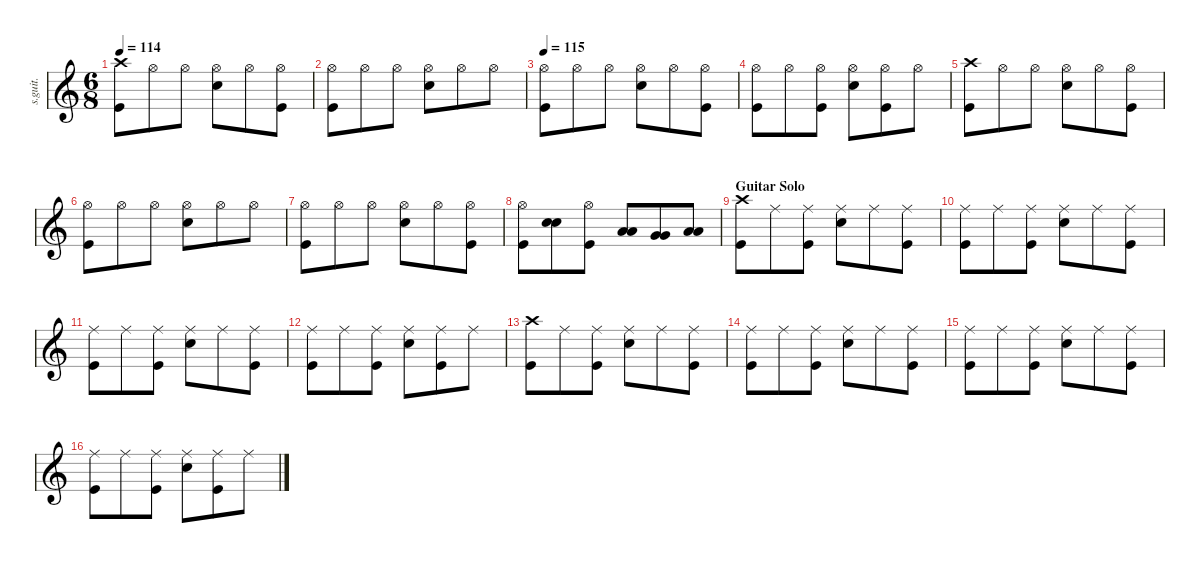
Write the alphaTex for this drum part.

\defaultSystemsLayout 4
\hideDynamics
\bracketExtendMode nobrackets
\track ("John Dolmayan - Drums" "s.guit.") {instrument percussion}
\staff {score}
\articulation defaults
\ts (6 8)
\tempo 114
\clef g2
\ks c
("Crash high (hit)" "Kick (hit)").8{lyrics (0 "") lyrics (1 "") lyrics (2 "") lyrics (3 "") lyrics (4 "") dy f} "Hi-Hat (open)".8{lyrics (0 "") lyrics (1 "") lyrics (2 "") lyrics (3 "") lyrics (4 "")} "Hi-Hat (open)".8{lyrics (0 "") lyrics (1 "") lyrics (2 "") lyrics (3 "") lyrics (4 "")} ("Hi-Hat (open)" "Snare (hit) 2").8{lyrics (0 "") lyrics (1 "") lyrics (2 "") lyrics (3 "") lyrics (4 "")} "Hi-Hat (open)".8{lyrics (0 "") lyrics (1 "") lyrics (2 "") lyrics (3 "") lyrics (4 "")} ("Hi-Hat (open)" "Kick (hit)").8{lyrics (0 "") lyrics (1 "") lyrics (2 "") lyrics (3 "") lyrics (4 "")} |
("Hi-Hat (open)" "Kick (hit)").8{lyrics (0 "") lyrics (1 "") lyrics (2 "") lyrics (3 "") lyrics (4 "")} "Hi-Hat (open)".8{lyrics (0 "") lyrics (1 "") lyrics (2 "") lyrics (3 "") lyrics (4 "")} "Hi-Hat (open)".8{lyrics (0 "") lyrics (1 "") lyrics (2 "") lyrics (3 "") lyrics (4 "")} ("Hi-Hat (open)" "Snare (hit) 2").8{lyrics (0 "") lyrics (1 "") lyrics (2 "") lyrics (3 "") lyrics (4 "")} "Hi-Hat (open)".8{lyrics (0 "") lyrics (1 "") lyrics (2 "") lyrics (3 "") lyrics (4 "")} "Hi-Hat (open)".8{lyrics (0 "") lyrics (1 "") lyrics (2 "") lyrics (3 "") lyrics (4 "")} |
\tempo 115
("Hi-Hat (open)" "Kick (hit)").8{lyrics (0 "") lyrics (1 "") lyrics (2 "") lyrics (3 "") lyrics (4 "")} "Hi-Hat (open)".8{lyrics (0 "") lyrics (1 "") lyrics (2 "") lyrics (3 "") lyrics (4 "")} "Hi-Hat (open)".8{lyrics (0 "") lyrics (1 "") lyrics (2 "") lyrics (3 "") lyrics (4 "")} ("Hi-Hat (open)" "Snare (hit) 2").8{lyrics (0 "") lyrics (1 "") lyrics (2 "") lyrics (3 "") lyrics (4 "")} "Hi-Hat (open)".8{lyrics (0 "") lyrics (1 "") lyrics (2 "") lyrics (3 "") lyrics (4 "")} ("Hi-Hat (open)" "Kick (hit)").8{lyrics (0 "") lyrics (1 "") lyrics (2 "") lyrics (3 "") lyrics (4 "")} |
("Hi-Hat (open)" "Kick (hit)").8{lyrics (0 "") lyrics (1 "") lyrics (2 "") lyrics (3 "") lyrics (4 "")} "Hi-Hat (open)".8{lyrics (0 "") lyrics (1 "") lyrics (2 "") lyrics (3 "") lyrics (4 "")} ("Hi-Hat (open)" "Kick (hit)").8{lyrics (0 "") lyrics (1 "") lyrics (2 "") lyrics (3 "") lyrics (4 "")} ("Hi-Hat (open)" "Snare (hit) 2").8{lyrics (0 "") lyrics (1 "") lyrics (2 "") lyrics (3 "") lyrics (4 "")} ("Hi-Hat (open)" "Kick (hit)").8{lyrics (0 "") lyrics (1 "") lyrics (2 "") lyrics (3 "") lyrics (4 "")} "Hi-Hat (open)".8{lyrics (0 "") lyrics (1 "") lyrics (2 "") lyrics (3 "") lyrics (4 "")} |
("Crash high (hit)" "Kick (hit)").8{lyrics (0 "") lyrics (1 "") lyrics (2 "") lyrics (3 "") lyrics (4 "")} "Hi-Hat (open)".8{lyrics (0 "") lyrics (1 "") lyrics (2 "") lyrics (3 "") lyrics (4 "")} "Hi-Hat (open)".8{lyrics (0 "") lyrics (1 "") lyrics (2 "") lyrics (3 "") lyrics (4 "")} ("Hi-Hat (open)" "Snare (hit) 2").8{lyrics (0 "") lyrics (1 "") lyrics (2 "") lyrics (3 "") lyrics (4 "")} "Hi-Hat (open)".8{lyrics (0 "") lyrics (1 "") lyrics (2 "") lyrics (3 "") lyrics (4 "")} ("Hi-Hat (open)" "Kick (hit)").8{lyrics (0 "") lyrics (1 "") lyrics (2 "") lyrics (3 "") lyrics (4 "")} |
("Hi-Hat (open)" "Kick (hit)").8{lyrics (0 "") lyrics (1 "") lyrics (2 "") lyrics (3 "") lyrics (4 "")} "Hi-Hat (open)".8{lyrics (0 "") lyrics (1 "") lyrics (2 "") lyrics (3 "") lyrics (4 "")} "Hi-Hat (open)".8{lyrics (0 "") lyrics (1 "") lyrics (2 "") lyrics (3 "") lyrics (4 "")} ("Hi-Hat (open)" "Snare (hit) 2").8{lyrics (0 "") lyrics (1 "") lyrics (2 "") lyrics (3 "") lyrics (4 "")} "Hi-Hat (open)".8{lyrics (0 "") lyrics (1 "") lyrics (2 "") lyrics (3 "") lyrics (4 "")} "Hi-Hat (open)".8{lyrics (0 "") lyrics (1 "") lyrics (2 "") lyrics (3 "") lyrics (4 "")} |
("Hi-Hat (open)" "Kick (hit)").8{lyrics (0 "") lyrics (1 "") lyrics (2 "") lyrics (3 "") lyrics (4 "")} "Hi-Hat (open)".8{lyrics (0 "") lyrics (1 "") lyrics (2 "") lyrics (3 "") lyrics (4 "")} "Hi-Hat (open)".8{lyrics (0 "") lyrics (1 "") lyrics (2 "") lyrics (3 "") lyrics (4 "")} ("Hi-Hat (open)" "Snare (hit) 2").8{lyrics (0 "") lyrics (1 "") lyrics (2 "") lyrics (3 "") lyrics (4 "")} "Hi-Hat (open)".8{lyrics (0 "") lyrics (1 "") lyrics (2 "") lyrics (3 "") lyrics (4 "")} ("Hi-Hat (open)" "Kick (hit)").8{lyrics (0 "") lyrics (1 "") lyrics (2 "") lyrics (3 "") lyrics (4 "")} |
("Hi-Hat (open)" "Kick (hit)").8{lyrics (0 "") lyrics (1 "") lyrics (2 "") lyrics (3 "") lyrics (4 "")} ("Snare (hit) 2" "Snare (hit) 2").8{lyrics (0 "") lyrics (1 "") lyrics (2 "") lyrics (3 "") lyrics (4 "")} ("Hi-Hat (open)" "Kick (hit)").8{lyrics (0 "") lyrics (1 "") lyrics (2 "") lyrics (3 "") lyrics (4 "")} ("Low Tom (hit)" "Low Tom (hit)").8{lyrics (0 "") lyrics (1 "") lyrics (2 "") lyrics (3 "") lyrics (4 "")} ("Very Low Tom (hit)" "Very Low Tom (hit)").8{lyrics (0 "") lyrics (1 "") lyrics (2 "") lyrics (3 "") lyrics (4 "")} ("Low Floor Tom (hit)" "Low Floor Tom (hit)").8{lyrics (0 "") lyrics (1 "") lyrics (2 "") lyrics (3 "") lyrics (4 "")} |
\section ("" "Guitar Solo")
\tempo (115 hide)
("Crash high (hit)" "Kick (hit)").8{lyrics (0 "") lyrics (1 "") lyrics (2 "") lyrics (3 "") lyrics (4 "")} "Ride (middle)".8{lyrics (0 "") lyrics (1 "") lyrics (2 "") lyrics (3 "") lyrics (4 "")} ("Ride (middle)" "Kick (hit)").8{lyrics (0 "") lyrics (1 "") lyrics (2 "") lyrics (3 "") lyrics (4 "")} ("Ride (middle)" "Snare (hit) 2").8{lyrics (0 "") lyrics (1 "") lyrics (2 "") lyrics (3 "") lyrics (4 "")} "Ride (middle)".8{lyrics (0 "") lyrics (1 "") lyrics (2 "") lyrics (3 "") lyrics (4 "")} ("Ride (middle)" "Kick (hit)").8{lyrics (0 "") lyrics (1 "") lyrics (2 "") lyrics (3 "") lyrics (4 "")} |
("Ride (middle)" "Kick (hit)").8{lyrics (0 "") lyrics (1 "") lyrics (2 "") lyrics (3 "") lyrics (4 "")} "Ride (middle)".8{lyrics (0 "") lyrics (1 "") lyrics (2 "") lyrics (3 "") lyrics (4 "")} ("Ride (middle)" "Kick (hit)").8{lyrics (0 "") lyrics (1 "") lyrics (2 "") lyrics (3 "") lyrics (4 "")} ("Ride (middle)" "Snare (hit) 2").8{lyrics (0 "") lyrics (1 "") lyrics (2 "") lyrics (3 "") lyrics (4 "")} "Ride (middle)".8{lyrics (0 "") lyrics (1 "") lyrics (2 "") lyrics (3 "") lyrics (4 "")} ("Ride (middle)" "Kick (hit)").8{lyrics (0 "") lyrics (1 "") lyrics (2 "") lyrics (3 "") lyrics (4 "")} |
("Ride (middle)" "Kick (hit)").8{lyrics (0 "") lyrics (1 "") lyrics (2 "") lyrics (3 "") lyrics (4 "")} "Ride (middle)".8{lyrics (0 "") lyrics (1 "") lyrics (2 "") lyrics (3 "") lyrics (4 "")} ("Ride (middle)" "Kick (hit)").8{lyrics (0 "") lyrics (1 "") lyrics (2 "") lyrics (3 "") lyrics (4 "")} ("Ride (middle)" "Snare (hit) 2").8{lyrics (0 "") lyrics (1 "") lyrics (2 "") lyrics (3 "") lyrics (4 "")} "Ride (middle)".8{lyrics (0 "") lyrics (1 "") lyrics (2 "") lyrics (3 "") lyrics (4 "")} ("Ride (middle)" "Kick (hit)").8{lyrics (0 "") lyrics (1 "") lyrics (2 "") lyrics (3 "") lyrics (4 "")} |
("Ride (middle)" "Kick (hit)").8{lyrics (0 "") lyrics (1 "") lyrics (2 "") lyrics (3 "") lyrics (4 "")} "Ride (middle)".8{lyrics (0 "") lyrics (1 "") lyrics (2 "") lyrics (3 "") lyrics (4 "")} ("Ride (middle)" "Kick (hit)").8{lyrics (0 "") lyrics (1 "") lyrics (2 "") lyrics (3 "") lyrics (4 "")} ("Ride (middle)" "Snare (hit) 2").8{lyrics (0 "") lyrics (1 "") lyrics (2 "") lyrics (3 "") lyrics (4 "")} ("Ride (middle)" "Kick (hit)").8{lyrics (0 "") lyrics (1 "") lyrics (2 "") lyrics (3 "") lyrics (4 "")} "Ride (middle)".8{lyrics (0 "") lyrics (1 "") lyrics (2 "") lyrics (3 "") lyrics (4 "")} |
("Crash high (hit)" "Kick (hit)").8{lyrics (0 "") lyrics (1 "") lyrics (2 "") lyrics (3 "") lyrics (4 "")} "Ride (middle)".8{lyrics (0 "") lyrics (1 "") lyrics (2 "") lyrics (3 "") lyrics (4 "")} ("Ride (middle)" "Kick (hit)").8{lyrics (0 "") lyrics (1 "") lyrics (2 "") lyrics (3 "") lyrics (4 "")} ("Ride (middle)" "Snare (hit) 2").8{lyrics (0 "") lyrics (1 "") lyrics (2 "") lyrics (3 "") lyrics (4 "")} "Ride (middle)".8{lyrics (0 "") lyrics (1 "") lyrics (2 "") lyrics (3 "") lyrics (4 "")} ("Ride (middle)" "Kick (hit)").8{lyrics (0 "") lyrics (1 "") lyrics (2 "") lyrics (3 "") lyrics (4 "")} |
("Ride (middle)" "Kick (hit)").8{lyrics (0 "") lyrics (1 "") lyrics (2 "") lyrics (3 "") lyrics (4 "")} "Ride (middle)".8{lyrics (0 "") lyrics (1 "") lyrics (2 "") lyrics (3 "") lyrics (4 "")} ("Ride (middle)" "Kick (hit)").8{lyrics (0 "") lyrics (1 "") lyrics (2 "") lyrics (3 "") lyrics (4 "")} ("Ride (middle)" "Snare (hit) 2").8{lyrics (0 "") lyrics (1 "") lyrics (2 "") lyrics (3 "") lyrics (4 "")} "Ride (middle)".8{lyrics (0 "") lyrics (1 "") lyrics (2 "") lyrics (3 "") lyrics (4 "")} ("Ride (middle)" "Kick (hit)").8{lyrics (0 "") lyrics (1 "") lyrics (2 "") lyrics (3 "") lyrics (4 "")} |
("Ride (middle)" "Kick (hit)").8{lyrics (0 "") lyrics (1 "") lyrics (2 "") lyrics (3 "") lyrics (4 "")} "Ride (middle)".8{lyrics (0 "") lyrics (1 "") lyrics (2 "") lyrics (3 "") lyrics (4 "")} ("Ride (middle)" "Kick (hit)").8{lyrics (0 "") lyrics (1 "") lyrics (2 "") lyrics (3 "") lyrics (4 "")} ("Ride (middle)" "Snare (hit) 2").8{lyrics (0 "") lyrics (1 "") lyrics (2 "") lyrics (3 "") lyrics (4 "")} "Ride (middle)".8{lyrics (0 "") lyrics (1 "") lyrics (2 "") lyrics (3 "") lyrics (4 "")} ("Ride (middle)" "Kick (hit)").8{lyrics (0 "") lyrics (1 "") lyrics (2 "") lyrics (3 "") lyrics (4 "")} |
("Ride (middle)" "Kick (hit)").8{lyrics (0 "") lyrics (1 "") lyrics (2 "") lyrics (3 "") lyrics (4 "")} "Ride (middle)".8{lyrics (0 "") lyrics (1 "") lyrics (2 "") lyrics (3 "") lyrics (4 "")} ("Ride (middle)" "Kick (hit)").8{lyrics (0 "") lyrics (1 "") lyrics (2 "") lyrics (3 "") lyrics (4 "")} ("Ride (middle)" "Snare (hit) 2").8{lyrics (0 "") lyrics (1 "") lyrics (2 "") lyrics (3 "") lyrics (4 "")} ("Ride (middle)" "Kick (hit)").8{lyrics (0 "") lyrics (1 "") lyrics (2 "") lyrics (3 "") lyrics (4 "")} "Ride (middle)".8{lyrics (0 "") lyrics (1 "") lyrics (2 "") lyrics (3 "") lyrics (4 "")}
